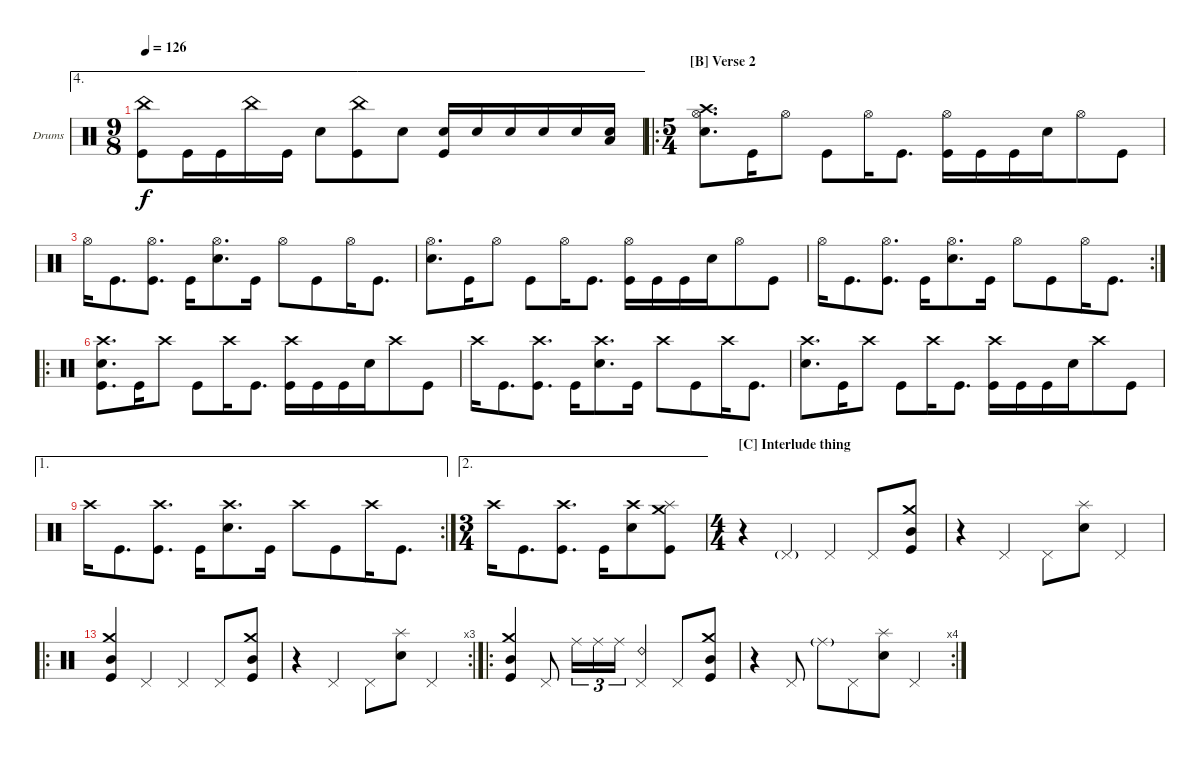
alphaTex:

\bracketExtendMode groupsimilarinstruments
\firstSystemTrackNameOrientation horizontal
\otherSystemsTrackNameOrientation horizontal
\defaultBarNumberDisplay FirstOfSystem
\track ("Drumkit" "Drums") {instrument percussion}
\staff {score}
\articulation defaults
\ae 4
\ts (9 8)
\tempo 126
\clef neutral
\ks c
("China (hit)" "Kick (hit)").8{dy f} "Kick (hit)".16 "Kick (hit)".16 "China (hit)".16 "Kick (hit)".16 "Snare (hit) 2".8 ("China (hit)" "Kick (hit)").8 "Snare (hit) 2".8 ("Snare (hit) 2" "Kick (hit)").16 "Snare (hit) 2".16 "Snare (hit) 2".16 "Snare (hit) 2".16 "Snare (hit) 2".16 ("Low Tom (hit)" "Snare (hit) 2").16 |
\ro
\ts (5 4)
\beaming (8 3 3 4)
\section ("B" "Verse 2")
("Hi-Hat (open)" "Crash high (hit)" "Snare (hit) 2").8{d} "Kick (hit)".16 "Hi-Hat (open)".8 "Kick (hit)".8 "Hi-Hat (open)".16 "Kick (hit)".8{d} ("Hi-Hat (open)" "Kick (hit)").16 "Kick (hit)".16 "Kick (hit)".16 "Snare (hit) 2".16 "Hi-Hat (open)".8 "Kick (hit)".8 |
"Hi-Hat (open)".16 "Kick (hit)".8{d} ("Hi-Hat (open)" "Kick (hit)").8{d} "Kick (hit)".16 ("Hi-Hat (open)" "Snare (hit) 2").8{d} "Kick (hit)".16 "Hi-Hat (open)".8 "Kick (hit)".8 "Hi-Hat (open)".16 "Kick (hit)".8{d} |
("Hi-Hat (open)" "Snare (hit) 2").8{d} "Kick (hit)".16 "Hi-Hat (open)".8 "Kick (hit)".8 "Hi-Hat (open)".16 "Kick (hit)".8{d} ("Hi-Hat (open)" "Kick (hit)").16 "Kick (hit)".16 "Kick (hit)".16 "Snare (hit) 2".16 "Hi-Hat (open)".8 "Kick (hit)".8 |
\rc 2 "Hi-Hat (open)".16 "Kick (hit)".8{d}
("Hi-Hat (open)" "Kick (hit)").8{d} "Kick (hit)".16 ("Hi-Hat (open)" "Snare (hit) 2").8{d} "Kick (hit)".16 "Hi-Hat (open)".8 "Kick (hit)".8 "Hi-Hat (open)".16 "Kick (hit)".8{d} |
\ro
("Kick (hit)" "Snare (hit) 2" "Crash high (hit)").8{d} "Kick (hit)".16 "Crash high (hit)".8 "Kick (hit)".8 "Crash high (hit)".16 "Kick (hit)".8{d} ("Kick (hit)" "Crash high (hit)").16 "Kick (hit)".16 "Kick (hit)".16 "Snare (hit) 2".16 "Crash high (hit)".8 "Kick (hit)".8 |
"Crash high (hit)".16 "Kick (hit)".8{d} ("Kick (hit)" "Crash high (hit)").8{d} "Kick (hit)".16 ("Snare (hit) 2" "Crash high (hit)").8{d} "Kick (hit)".16 "Crash high (hit)".8 "Kick (hit)".8 "Crash high (hit)".16 "Kick (hit)".8{d} |
("Snare (hit) 2" "Crash high (hit)").8{d} "Kick (hit)".16 "Crash high (hit)".8 "Kick (hit)".8 "Crash high (hit)".16 "Kick (hit)".8{d} ("Kick (hit)" "Crash high (hit)").16 "Kick (hit)".16 "Kick (hit)".16 "Snare (hit) 2".16 "Crash high (hit)".8 "Kick (hit)".8 |
\ae 1
\rc 2 "Crash high (hit)".16 "Kick (hit)".8{d}
("Kick (hit)" "Crash high (hit)").8{d} "Kick (hit)".16 ("Snare (hit) 2" "Crash high (hit)").8{d} "Kick (hit)".16 "Crash high (hit)".8 "Kick (hit)".8 "Crash high (hit)".16 "Kick (hit)".8{d} |
\ae 2
\ts (3 4)
"Crash high (hit)".16 "Kick (hit)".8{d} ("Kick (hit)" "Crash high (hit)").8{d} "Kick (hit)".16 ("Snare (hit) 2" "Crash high (hit)").8 ("Kick (hit)" "Crash medium (hit)" "Splash (hit)").8 |
\ts (4 4)
\section ("C" "Interlude thing")
r.4 "Pedal Hi-Hat (hit)"{g}.4 "Pedal Hi-Hat (hit)".4 "Pedal Hi-Hat (hit)".8 ("Kick (hit)" "Crash medium (hit)" "Mid Tom (hit)").8 |
r.4 "Pedal Hi-Hat (hit)".4 "Pedal Hi-Hat (hit)".8 ("Snare (hit) 2" "Splash (hit)").8 "Pedal Hi-Hat (hit)".4 |
\ro
("Kick (hit)" "Crash medium (hit)" "Mid Tom (hit)").4 "Pedal Hi-Hat (hit)".4 "Pedal Hi-Hat (hit)".4 "Pedal Hi-Hat (hit)".8 ("Kick (hit)" "Crash medium (hit)" "Mid Tom (hit)").8 |
\rc 3
r.4 "Pedal Hi-Hat (hit)".4 "Pedal Hi-Hat (hit)".8 ("Snare (hit) 2" "Splash (hit)").8 "Pedal Hi-Hat (hit)".4 |
\ro
("Kick (hit)" "Crash medium (hit)" "Mid Tom (hit)").4 "Pedal Hi-Hat (hit)".8 "Ride (middle)".16{tu (3 2)} "Ride (middle)".16{tu (3 2)} "Ride (middle)".16{tu (3 2)} ("Pedal Hi-Hat (hit)" "Ride (bell) 2").4 "Pedal Hi-Hat (hit)".8 ("Kick (hit)" "Crash medium (hit)" "Mid Tom (hit)").8 |
\rc 4
r.4 "Pedal Hi-Hat (hit)".8 "Ride (middle)"{g}.8 "Pedal Hi-Hat (hit)".8 ("Snare (hit) 2" "Splash (hit)").8 "Pedal Hi-Hat (hit)".4
